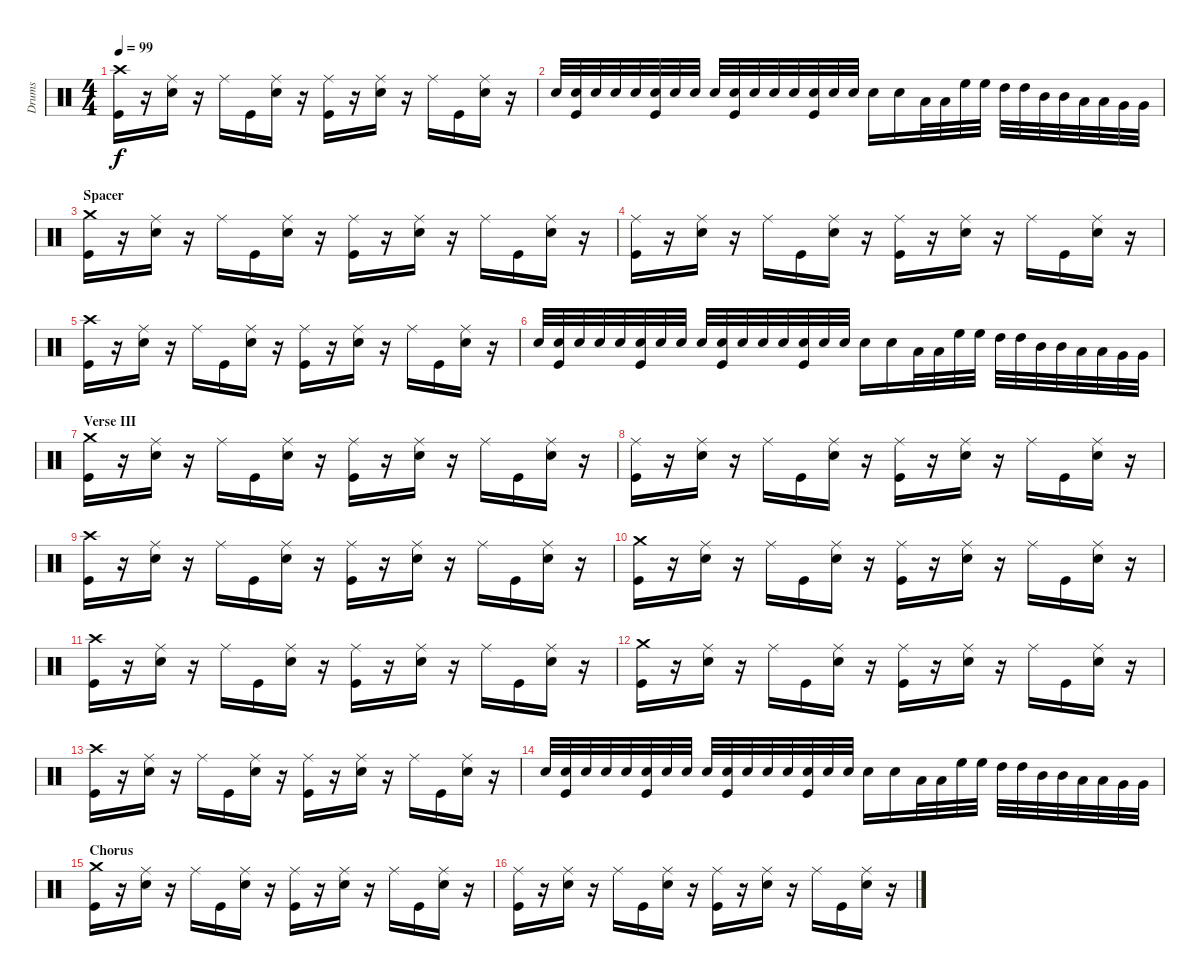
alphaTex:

\track ("Drums" "Drums") {instrument percussion}
\staff {score}
\articulation defaults
\ts (4 4)
\tempo 99
\clef neutral
\ks c
("Crash high (hit)" "Kick (hit)").16{dy f} r.16 ("Ride (middle)" "Electric Snare (hit)").16 r.16 "Ride (middle)".16 "Kick (hit)".16 ("Ride (middle)" "Electric Snare (hit)").16 r.16 ("Ride (middle)" "Kick (hit)").16 r.16 ("Ride (middle)" "Electric Snare (hit)").16 r.16 "Ride (middle)".16 "Kick (hit)".16 ("Ride (middle)" "Electric Snare (hit)").16 r.16 |
"Electric Snare (hit)".32 ("Electric Snare (hit)" "Kick (hit)").32 "Electric Snare (hit)".32 "Electric Snare (hit)".32 "Electric Snare (hit)".32 ("Electric Snare (hit)" "Kick (hit)").32 "Electric Snare (hit)".32 "Electric Snare (hit)".32 "Electric Snare (hit)".32 ("Electric Snare (hit)" "Kick (hit)").32 "Electric Snare (hit)".32 "Electric Snare (hit)".32 "Electric Snare (hit)".32 ("Electric Snare (hit)" "Kick (hit)").32 "Electric Snare (hit)".32 "Electric Snare (hit)".32 "Electric Snare (hit)".16 "Electric Snare (hit)".16 "Low Floor Tom (hit)".32 "Low Floor Tom (hit)".32 "High Floor Tom (hit)".32 "High Floor Tom (hit)".32 "High Tom (hit)".32 "High Tom (hit)".32 "Mid Tom (hit)".32 "Mid Tom (hit)".32 "Low Tom (hit)".32 "Low Tom (hit)".32 "Very Low Tom (hit)".32 "Very Low Tom (hit)".32 |
\section ("" "Spacer")
("Crash medium (hit)" "Kick (hit)").16 r.16 ("Ride (middle)" "Electric Snare (hit)").16 r.16 "Ride (middle)".16 "Kick (hit)".16 ("Ride (middle)" "Electric Snare (hit)").16 r.16 ("Ride (middle)" "Kick (hit)").16 r.16 ("Ride (middle)" "Electric Snare (hit)").16 r.16 "Ride (middle)".16 "Kick (hit)".16 ("Ride (middle)" "Electric Snare (hit)").16 r.16 |
("Ride (middle)" "Kick (hit)").16 r.16 ("Ride (middle)" "Electric Snare (hit)").16 r.16 "Ride (middle)".16 "Kick (hit)".16 ("Ride (middle)" "Electric Snare (hit)").16 r.16 ("Ride (middle)" "Kick (hit)").16 r.16 ("Ride (middle)" "Electric Snare (hit)").16 r.16 "Ride (middle)".16 "Kick (hit)".16 ("Ride (middle)" "Electric Snare (hit)").16 r.16 |
("Crash high (hit)" "Kick (hit)").16 r.16 ("Ride (middle)" "Electric Snare (hit)").16 r.16 "Ride (middle)".16 "Kick (hit)".16 ("Ride (middle)" "Electric Snare (hit)").16 r.16 ("Ride (middle)" "Kick (hit)").16 r.16 ("Ride (middle)" "Electric Snare (hit)").16 r.16 "Ride (middle)".16 "Kick (hit)".16 ("Ride (middle)" "Electric Snare (hit)").16 r.16 |
"Electric Snare (hit)".32 ("Electric Snare (hit)" "Kick (hit)").32 "Electric Snare (hit)".32 "Electric Snare (hit)".32 "Electric Snare (hit)".32 ("Electric Snare (hit)" "Kick (hit)").32 "Electric Snare (hit)".32 "Electric Snare (hit)".32 "Electric Snare (hit)".32 ("Electric Snare (hit)" "Kick (hit)").32 "Electric Snare (hit)".32 "Electric Snare (hit)".32 "Electric Snare (hit)".32 ("Electric Snare (hit)" "Kick (hit)").32 "Electric Snare (hit)".32 "Electric Snare (hit)".32 "Electric Snare (hit)".16 "Electric Snare (hit)".16 "Low Floor Tom (hit)".32 "Low Floor Tom (hit)".32 "High Floor Tom (hit)".32 "High Floor Tom (hit)".32 "High Tom (hit)".32 "High Tom (hit)".32 "Mid Tom (hit)".32 "Mid Tom (hit)".32 "Low Tom (hit)".32 "Low Tom (hit)".32 "Very Low Tom (hit)".32 "Very Low Tom (hit)".32 |
\section ("" "Verse III")
("Crash medium (hit)" "Kick (hit)").16 r.16 ("Ride (middle)" "Electric Snare (hit)").16 r.16 "Ride (middle)".16 "Kick (hit)".16 ("Ride (middle)" "Electric Snare (hit)").16 r.16 ("Ride (middle)" "Kick (hit)").16 r.16 ("Ride (middle)" "Electric Snare (hit)").16 r.16 "Ride (middle)".16 "Kick (hit)".16 ("Ride (middle)" "Electric Snare (hit)").16 r.16 |
("Ride (middle)" "Kick (hit)").16 r.16 ("Ride (middle)" "Electric Snare (hit)").16 r.16 "Ride (middle)".16 "Kick (hit)".16 ("Ride (middle)" "Electric Snare (hit)").16 r.16 ("Ride (middle)" "Kick (hit)").16 r.16 ("Ride (middle)" "Electric Snare (hit)").16 r.16 "Ride (middle)".16 "Kick (hit)".16 ("Ride (middle)" "Electric Snare (hit)").16 r.16 |
("Crash high (hit)" "Kick (hit)").16 r.16 ("Ride (middle)" "Electric Snare (hit)").16 r.16 "Ride (middle)".16 "Kick (hit)".16 ("Ride (middle)" "Electric Snare (hit)").16 r.16 ("Ride (middle)" "Kick (hit)").16 r.16 ("Ride (middle)" "Electric Snare (hit)").16 r.16 "Ride (middle)".16 "Kick (hit)".16 ("Ride (middle)" "Electric Snare (hit)").16 r.16 |
("Crash medium (hit)" "Kick (hit)").16 r.16 ("Ride (middle)" "Electric Snare (hit)").16 r.16 "Ride (middle)".16 "Kick (hit)".16 ("Ride (middle)" "Electric Snare (hit)").16 r.16 ("Ride (middle)" "Kick (hit)").16 r.16 ("Ride (middle)" "Electric Snare (hit)").16 r.16 "Ride (middle)".16 "Kick (hit)".16 ("Ride (middle)" "Electric Snare (hit)").16 r.16 |
("Crash high (hit)" "Kick (hit)").16 r.16 ("Ride (middle)" "Electric Snare (hit)").16 r.16 "Ride (middle)".16 "Kick (hit)".16 ("Ride (middle)" "Electric Snare (hit)").16 r.16 ("Ride (middle)" "Kick (hit)").16 r.16 ("Ride (middle)" "Electric Snare (hit)").16 r.16 "Ride (middle)".16 "Kick (hit)".16 ("Ride (middle)" "Electric Snare (hit)").16 r.16 |
("Crash medium (hit)" "Kick (hit)").16 r.16 ("Ride (middle)" "Electric Snare (hit)").16 r.16 "Ride (middle)".16 "Kick (hit)".16 ("Ride (middle)" "Electric Snare (hit)").16 r.16 ("Ride (middle)" "Kick (hit)").16 r.16 ("Ride (middle)" "Electric Snare (hit)").16 r.16 "Ride (middle)".16 "Kick (hit)".16 ("Ride (middle)" "Electric Snare (hit)").16 r.16 |
("Crash high (hit)" "Kick (hit)").16 r.16 ("Ride (middle)" "Electric Snare (hit)").16 r.16 "Ride (middle)".16 "Kick (hit)".16 ("Ride (middle)" "Electric Snare (hit)").16 r.16 ("Ride (middle)" "Kick (hit)").16 r.16 ("Ride (middle)" "Electric Snare (hit)").16 r.16 "Ride (middle)".16 "Kick (hit)".16 ("Ride (middle)" "Electric Snare (hit)").16 r.16 |
"Electric Snare (hit)".32 ("Electric Snare (hit)" "Kick (hit)").32 "Electric Snare (hit)".32 "Electric Snare (hit)".32 "Electric Snare (hit)".32 ("Electric Snare (hit)" "Kick (hit)").32 "Electric Snare (hit)".32 "Electric Snare (hit)".32 "Electric Snare (hit)".32 ("Electric Snare (hit)" "Kick (hit)").32 "Electric Snare (hit)".32 "Electric Snare (hit)".32 "Electric Snare (hit)".32 ("Electric Snare (hit)" "Kick (hit)").32 "Electric Snare (hit)".32 "Electric Snare (hit)".32 "Electric Snare (hit)".16 "Electric Snare (hit)".16 "Low Floor Tom (hit)".32 "Low Floor Tom (hit)".32 "High Floor Tom (hit)".32 "High Floor Tom (hit)".32 "High Tom (hit)".32 "High Tom (hit)".32 "Mid Tom (hit)".32 "Mid Tom (hit)".32 "Low Tom (hit)".32 "Low Tom (hit)".32 "Very Low Tom (hit)".32 "Very Low Tom (hit)".32 |
\section ("" "Chorus")
("Crash medium (hit)" "Kick (hit)").16 r.16 ("Ride (middle)" "Electric Snare (hit)").16 r.16 "Ride (middle)".16 "Kick (hit)".16 ("Ride (middle)" "Electric Snare (hit)").16 r.16 ("Ride (middle)" "Kick (hit)").16 r.16 ("Ride (middle)" "Electric Snare (hit)").16 r.16 "Ride (middle)".16 "Kick (hit)".16 ("Ride (middle)" "Electric Snare (hit)").16 r.16 |
("Ride (middle)" "Kick (hit)").16 r.16 ("Ride (middle)" "Electric Snare (hit)").16 r.16 "Ride (middle)".16 "Kick (hit)".16 ("Ride (middle)" "Electric Snare (hit)").16 r.16 ("Ride (middle)" "Kick (hit)").16 r.16 ("Ride (middle)" "Electric Snare (hit)").16 r.16 "Ride (middle)".16 "Kick (hit)".16 ("Ride (middle)" "Electric Snare (hit)").16 r.16
